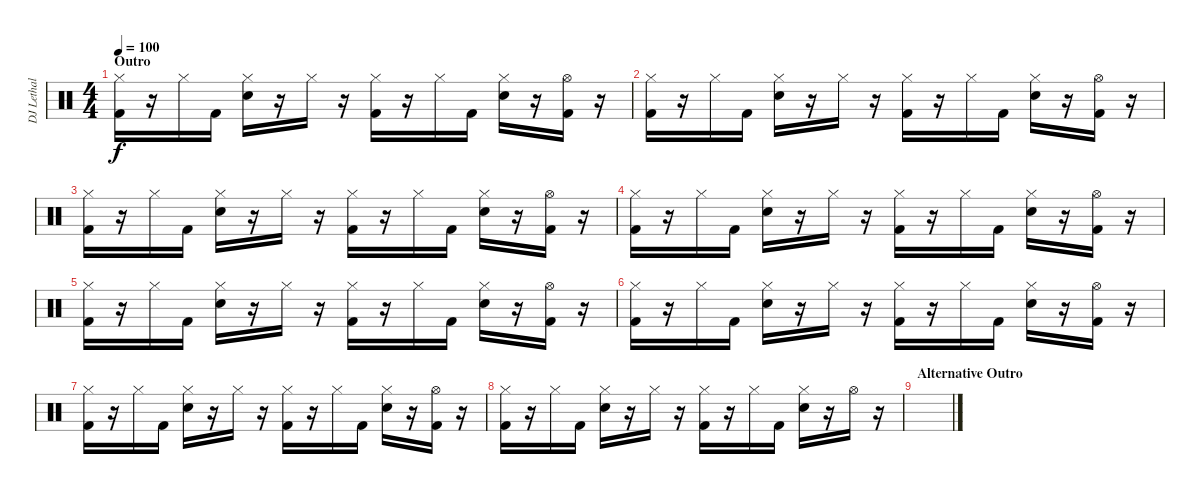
\track ("DJ Lethal - Sample Drums" "DJ Lethal ") {instrument percussion}
\staff {score}
\articulation defaults
\ts (4 4)
\section ("" "Outro")
\tempo 100
\clef neutral
\ks c
("Hi-Hat (closed)" "Kick (hit) 2").16{dy f} r.16 "Hi-Hat (closed)".16 "Kick (hit) 2".16 ("Hi-Hat (closed)" "Electric Snare (hit)").16 r.16 "Hi-Hat (closed)".16 r.16 ("Hi-Hat (closed)" "Kick (hit) 2").16 r.16 "Hi-Hat (closed)".16 "Kick (hit) 2".16 ("Hi-Hat (closed)" "Electric Snare (hit)").16 r.16 ("Hi-Hat (open)" "Kick (hit) 2").16 r.16 |
("Hi-Hat (closed)" "Kick (hit) 2").16 r.16 "Hi-Hat (closed)".16 "Kick (hit) 2".16 ("Hi-Hat (closed)" "Electric Snare (hit)").16 r.16 "Hi-Hat (closed)".16 r.16 ("Hi-Hat (closed)" "Kick (hit) 2").16 r.16 "Hi-Hat (closed)".16 "Kick (hit) 2".16 ("Hi-Hat (closed)" "Electric Snare (hit)").16 r.16 ("Hi-Hat (open)" "Kick (hit) 2").16 r.16 |
("Hi-Hat (closed)" "Kick (hit) 2").16 r.16 "Hi-Hat (closed)".16 "Kick (hit) 2".16 ("Hi-Hat (closed)" "Electric Snare (hit)").16 r.16 "Hi-Hat (closed)".16 r.16 ("Hi-Hat (closed)" "Kick (hit) 2").16 r.16 "Hi-Hat (closed)".16 "Kick (hit) 2".16 ("Hi-Hat (closed)" "Electric Snare (hit)").16 r.16 ("Hi-Hat (open)" "Kick (hit) 2").16 r.16 |
("Hi-Hat (closed)" "Kick (hit) 2").16 r.16 "Hi-Hat (closed)".16 "Kick (hit) 2".16 ("Hi-Hat (closed)" "Electric Snare (hit)").16 r.16 "Hi-Hat (closed)".16 r.16 ("Hi-Hat (closed)" "Kick (hit) 2").16 r.16 "Hi-Hat (closed)".16 "Kick (hit) 2".16 ("Hi-Hat (closed)" "Electric Snare (hit)").16 r.16 ("Hi-Hat (open)" "Kick (hit) 2").16 r.16 |
("Hi-Hat (closed)" "Kick (hit) 2").16 r.16 "Hi-Hat (closed)".16 "Kick (hit) 2".16 ("Hi-Hat (closed)" "Electric Snare (hit)").16 r.16 "Hi-Hat (closed)".16 r.16 ("Hi-Hat (closed)" "Kick (hit) 2").16 r.16 "Hi-Hat (closed)".16 "Kick (hit) 2".16 ("Hi-Hat (closed)" "Electric Snare (hit)").16 r.16 ("Hi-Hat (open)" "Kick (hit) 2").16 r.16 |
("Hi-Hat (closed)" "Kick (hit) 2").16 r.16 "Hi-Hat (closed)".16 "Kick (hit) 2".16 ("Hi-Hat (closed)" "Electric Snare (hit)").16 r.16 "Hi-Hat (closed)".16 r.16 ("Hi-Hat (closed)" "Kick (hit) 2").16 r.16 "Hi-Hat (closed)".16 "Kick (hit) 2".16 ("Hi-Hat (closed)" "Electric Snare (hit)").16 r.16 ("Hi-Hat (open)" "Kick (hit) 2").16 r.16 |
("Hi-Hat (closed)" "Kick (hit) 2").16 r.16 "Hi-Hat (closed)".16 "Kick (hit) 2".16 ("Hi-Hat (closed)" "Electric Snare (hit)").16 r.16 "Hi-Hat (closed)".16 r.16 ("Hi-Hat (closed)" "Kick (hit) 2").16 r.16 "Hi-Hat (closed)".16 "Kick (hit) 2".16 ("Hi-Hat (closed)" "Electric Snare (hit)").16 r.16 ("Hi-Hat (open)" "Kick (hit) 2").16 r.16 |
("Hi-Hat (closed)" "Kick (hit) 2").16 r.16 "Hi-Hat (closed)".16 "Kick (hit) 2".16 ("Hi-Hat (closed)" "Electric Snare (hit)").16 r.16 "Hi-Hat (closed)".16 r.16 ("Hi-Hat (closed)" "Kick (hit) 2").16 r.16 "Hi-Hat (closed)".16 "Kick (hit) 2".16 ("Hi-Hat (closed)" "Electric Snare (hit)").16 r.16 "Hi-Hat (open)".16 r.16 |
\section ("" "Alternative Outro")
